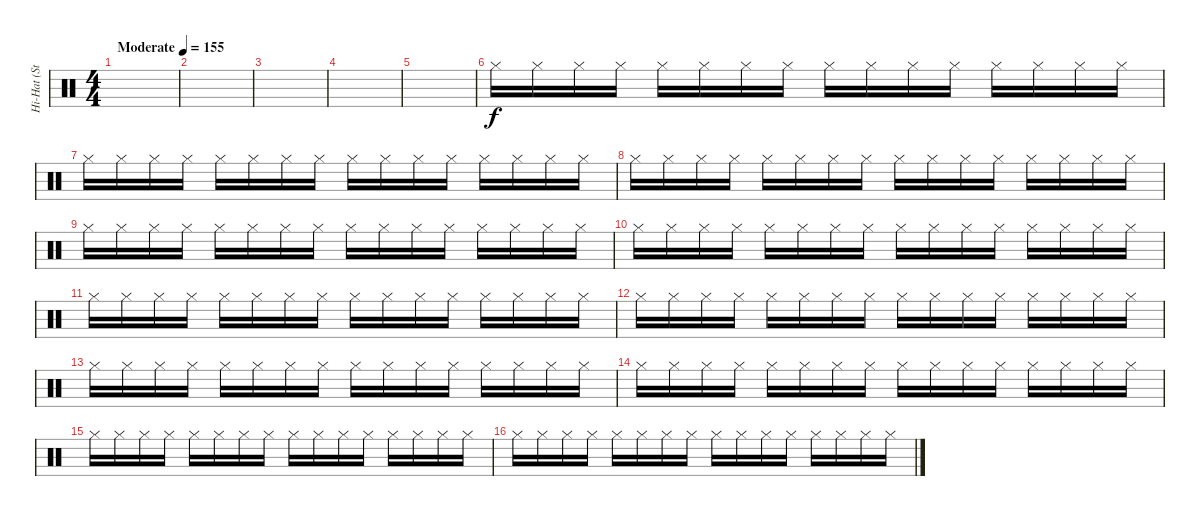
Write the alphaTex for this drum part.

\track ("Hi-Hat (Stephen Morris)" "Hi-Hat (St") {instrument percussion}
\staff {score}
\articulation defaults
\ts (4 4)
\tempo (155 "Moderate")
\clef neutral
\ks c
|
|
|
|
|
"Hi-Hat (closed)".16 "Hi-Hat (closed)".16 "Hi-Hat (closed)".16 "Hi-Hat (closed)".16 "Hi-Hat (closed)".16 "Hi-Hat (closed)".16 "Hi-Hat (closed)".16 "Hi-Hat (closed)".16 "Hi-Hat (closed)".16 "Hi-Hat (closed)".16 "Hi-Hat (closed)".16 "Hi-Hat (closed)".16 "Hi-Hat (closed)".16 "Hi-Hat (closed)".16 "Hi-Hat (closed)".16 "Hi-Hat (closed)".16 |
"Hi-Hat (closed)".16 "Hi-Hat (closed)".16 "Hi-Hat (closed)".16 "Hi-Hat (closed)".16 "Hi-Hat (closed)".16 "Hi-Hat (closed)".16 "Hi-Hat (closed)".16 "Hi-Hat (closed)".16 "Hi-Hat (closed)".16 "Hi-Hat (closed)".16 "Hi-Hat (closed)".16 "Hi-Hat (closed)".16 "Hi-Hat (closed)".16 "Hi-Hat (closed)".16 "Hi-Hat (closed)".16 "Hi-Hat (closed)".16 |
"Hi-Hat (closed)".16 "Hi-Hat (closed)".16 "Hi-Hat (closed)".16 "Hi-Hat (closed)".16 "Hi-Hat (closed)".16 "Hi-Hat (closed)".16 "Hi-Hat (closed)".16 "Hi-Hat (closed)".16 "Hi-Hat (closed)".16 "Hi-Hat (closed)".16 "Hi-Hat (closed)".16 "Hi-Hat (closed)".16 "Hi-Hat (closed)".16 "Hi-Hat (closed)".16 "Hi-Hat (closed)".16 "Hi-Hat (closed)".16 |
"Hi-Hat (closed)".16 "Hi-Hat (closed)".16 "Hi-Hat (closed)".16 "Hi-Hat (closed)".16 "Hi-Hat (closed)".16 "Hi-Hat (closed)".16 "Hi-Hat (closed)".16 "Hi-Hat (closed)".16 "Hi-Hat (closed)".16 "Hi-Hat (closed)".16 "Hi-Hat (closed)".16 "Hi-Hat (closed)".16 "Hi-Hat (closed)".16 "Hi-Hat (closed)".16 "Hi-Hat (closed)".16 "Hi-Hat (closed)".16 |
"Hi-Hat (closed)".16 "Hi-Hat (closed)".16 "Hi-Hat (closed)".16 "Hi-Hat (closed)".16 "Hi-Hat (closed)".16 "Hi-Hat (closed)".16 "Hi-Hat (closed)".16 "Hi-Hat (closed)".16 "Hi-Hat (closed)".16 "Hi-Hat (closed)".16 "Hi-Hat (closed)".16 "Hi-Hat (closed)".16 "Hi-Hat (closed)".16 "Hi-Hat (closed)".16 "Hi-Hat (closed)".16 "Hi-Hat (closed)".16 |
"Hi-Hat (closed)".16 "Hi-Hat (closed)".16 "Hi-Hat (closed)".16 "Hi-Hat (closed)".16 "Hi-Hat (closed)".16 "Hi-Hat (closed)".16 "Hi-Hat (closed)".16 "Hi-Hat (closed)".16 "Hi-Hat (closed)".16 "Hi-Hat (closed)".16 "Hi-Hat (closed)".16 "Hi-Hat (closed)".16 "Hi-Hat (closed)".16 "Hi-Hat (closed)".16 "Hi-Hat (closed)".16 "Hi-Hat (closed)".16 |
"Hi-Hat (closed)".16 "Hi-Hat (closed)".16 "Hi-Hat (closed)".16 "Hi-Hat (closed)".16 "Hi-Hat (closed)".16 "Hi-Hat (closed)".16 "Hi-Hat (closed)".16 "Hi-Hat (closed)".16 "Hi-Hat (closed)".16 "Hi-Hat (closed)".16 "Hi-Hat (closed)".16 "Hi-Hat (closed)".16 "Hi-Hat (closed)".16 "Hi-Hat (closed)".16 "Hi-Hat (closed)".16 "Hi-Hat (closed)".16 |
"Hi-Hat (closed)".16 "Hi-Hat (closed)".16 "Hi-Hat (closed)".16 "Hi-Hat (closed)".16 "Hi-Hat (closed)".16 "Hi-Hat (closed)".16 "Hi-Hat (closed)".16 "Hi-Hat (closed)".16 "Hi-Hat (closed)".16 "Hi-Hat (closed)".16 "Hi-Hat (closed)".16 "Hi-Hat (closed)".16 "Hi-Hat (closed)".16 "Hi-Hat (closed)".16 "Hi-Hat (closed)".16 "Hi-Hat (closed)".16 |
"Hi-Hat (closed)".16 "Hi-Hat (closed)".16 "Hi-Hat (closed)".16 "Hi-Hat (closed)".16 "Hi-Hat (closed)".16 "Hi-Hat (closed)".16 "Hi-Hat (closed)".16 "Hi-Hat (closed)".16 "Hi-Hat (closed)".16 "Hi-Hat (closed)".16 "Hi-Hat (closed)".16 "Hi-Hat (closed)".16 "Hi-Hat (closed)".16 "Hi-Hat (closed)".16 "Hi-Hat (closed)".16 "Hi-Hat (closed)".16 |
"Hi-Hat (closed)".16 "Hi-Hat (closed)".16 "Hi-Hat (closed)".16 "Hi-Hat (closed)".16 "Hi-Hat (closed)".16 "Hi-Hat (closed)".16 "Hi-Hat (closed)".16 "Hi-Hat (closed)".16 "Hi-Hat (closed)".16 "Hi-Hat (closed)".16 "Hi-Hat (closed)".16 "Hi-Hat (closed)".16 "Hi-Hat (closed)".16 "Hi-Hat (closed)".16 "Hi-Hat (closed)".16 "Hi-Hat (closed)".16 |
"Hi-Hat (closed)".16 "Hi-Hat (closed)".16 "Hi-Hat (closed)".16 "Hi-Hat (closed)".16 "Hi-Hat (closed)".16 "Hi-Hat (closed)".16 "Hi-Hat (closed)".16 "Hi-Hat (closed)".16 "Hi-Hat (closed)".16 "Hi-Hat (closed)".16 "Hi-Hat (closed)".16 "Hi-Hat (closed)".16 "Hi-Hat (closed)".16 "Hi-Hat (closed)".16 "Hi-Hat (closed)".16 "Hi-Hat (closed)".16
